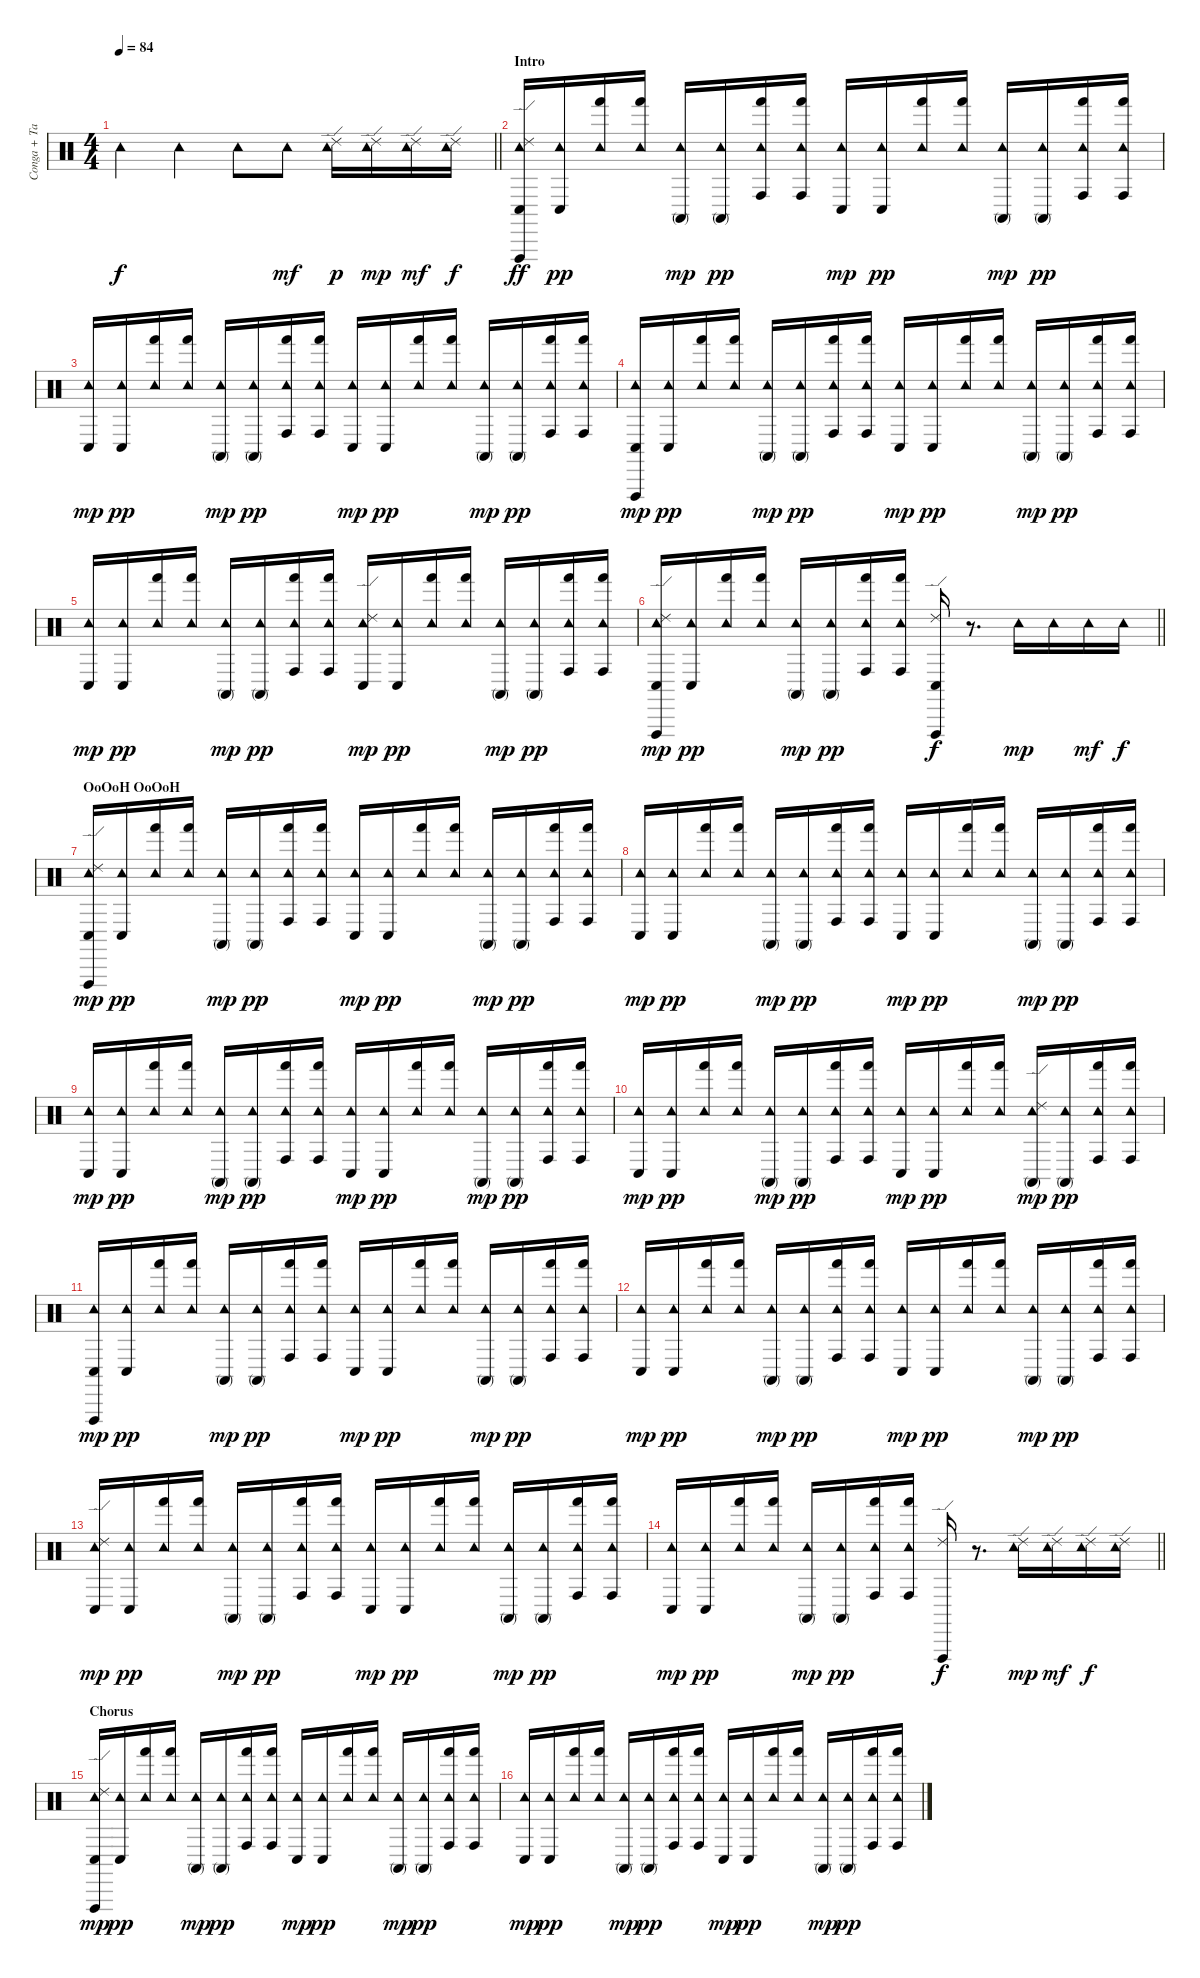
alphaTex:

\track ("Conga + Tambourine" "Conga + Ta") {instrument percussion}
\staff {score}
\articulation defaults
\ts (4 4)
\tempo 84
\clef neutral
\barLineRight lightlight
\ks c "Tambourine (hit)".4{dy f} "Tambourine (hit)".4 "Tambourine (hit)".8 "Tambourine (hit)".8{dy mf}
("Tambourine (hit)" "Ride (edge) 2").16{dy p} ("Tambourine (hit)" "Ride (edge) 2").16{dy mp} ("Tambourine (hit)" "Ride (edge) 2").16{dy mf} ("Tambourine (hit)" "Ride (edge) 2").16{dy f} |
\section ("" "Intro")
("Conga low (hit)" "Vibraslap (hit)" "Tambourine (hit)" "Ride (edge) 2").16{dy ff} ("Conga low (hit)" "Tambourine (hit)").16{dy pp} ("Hand (hit)" "Tambourine (hit)").16 ("Hand (hit)" "Tambourine (hit)").16 ("Conga high (mute)" "Tambourine (hit)").16{dy mp} ("Conga high (mute)" "Tambourine (hit)").16{dy pp} ("Conga high (hit)" "Hand (hit)" "Tambourine (hit)").16 ("Conga high (hit)" "Hand (hit)" "Tambourine (hit)").16 ("Conga low (hit)" "Tambourine (hit)").16{dy mp} ("Conga low (hit)" "Tambourine (hit)").16{dy pp} ("Hand (hit)" "Tambourine (hit)").16 ("Hand (hit)" "Tambourine (hit)").16 ("Conga high (mute)" "Tambourine (hit)").16{dy mp} ("Conga high (mute)" "Tambourine (hit)").16{dy pp} ("Conga high (hit)" "Hand (hit)" "Tambourine (hit)").16 ("Conga high (hit)" "Hand (hit)" "Tambourine (hit)").16 |
("Conga low (hit)" "Tambourine (hit)").16{dy mp} ("Conga low (hit)" "Tambourine (hit)").16{dy pp} ("Hand (hit)" "Tambourine (hit)").16 ("Hand (hit)" "Tambourine (hit)").16 ("Conga high (mute)" "Tambourine (hit)").16{dy mp} ("Conga high (mute)" "Tambourine (hit)").16{dy pp} ("Conga high (hit)" "Hand (hit)" "Tambourine (hit)").16 ("Conga high (hit)" "Hand (hit)" "Tambourine (hit)").16 ("Conga low (hit)" "Tambourine (hit)").16{dy mp} ("Conga low (hit)" "Tambourine (hit)").16{dy pp} ("Hand (hit)" "Tambourine (hit)").16 ("Hand (hit)" "Tambourine (hit)").16 ("Conga high (mute)" "Tambourine (hit)").16{dy mp} ("Conga high (mute)" "Tambourine (hit)").16{dy pp} ("Conga high (hit)" "Hand (hit)" "Tambourine (hit)").16 ("Conga high (hit)" "Hand (hit)" "Tambourine (hit)").16 |
("Conga low (hit)" "Vibraslap (hit)" "Tambourine (hit)").16{dy mp} ("Conga low (hit)" "Tambourine (hit)").16{dy pp} ("Hand (hit)" "Tambourine (hit)").16 ("Hand (hit)" "Tambourine (hit)").16 ("Conga high (mute)" "Tambourine (hit)").16{dy mp} ("Conga high (mute)" "Tambourine (hit)").16{dy pp} ("Conga high (hit)" "Hand (hit)" "Tambourine (hit)").16 ("Conga high (hit)" "Hand (hit)" "Tambourine (hit)").16 ("Conga low (hit)" "Tambourine (hit)").16{dy mp} ("Conga low (hit)" "Tambourine (hit)").16{dy pp} ("Hand (hit)" "Tambourine (hit)").16 ("Hand (hit)" "Tambourine (hit)").16 ("Conga high (mute)" "Tambourine (hit)").16{dy mp} ("Conga high (mute)" "Tambourine (hit)").16{dy pp} ("Conga high (hit)" "Hand (hit)" "Tambourine (hit)").16 ("Conga high (hit)" "Hand (hit)" "Tambourine (hit)").16 |
("Conga low (hit)" "Tambourine (hit)").16{dy mp} ("Conga low (hit)" "Tambourine (hit)").16{dy pp} ("Hand (hit)" "Tambourine (hit)").16 ("Hand (hit)" "Tambourine (hit)").16 ("Conga high (mute)" "Tambourine (hit)").16{dy mp} ("Conga high (mute)" "Tambourine (hit)").16{dy pp} ("Conga high (hit)" "Hand (hit)" "Tambourine (hit)").16 ("Conga high (hit)" "Hand (hit)" "Tambourine (hit)").16 ("Conga low (hit)" "Tambourine (hit)" "Ride (edge) 2").16{dy mp} ("Conga low (hit)" "Tambourine (hit)").16{dy pp} ("Hand (hit)" "Tambourine (hit)").16 ("Hand (hit)" "Tambourine (hit)").16 ("Conga high (mute)" "Tambourine (hit)").16{dy mp} ("Conga high (mute)" "Tambourine (hit)").16{dy pp} ("Conga high (hit)" "Hand (hit)" "Tambourine (hit)").16 ("Conga high (hit)" "Hand (hit)" "Tambourine (hit)").16 |
\barLineRight lightlight
("Conga low (hit)" "Vibraslap (hit)" "Tambourine (hit)" "Ride (edge) 2").16{dy mp} ("Conga low (hit)" "Tambourine (hit)").16{dy pp} ("Hand (hit)" "Tambourine (hit)").16 ("Hand (hit)" "Tambourine (hit)").16 ("Conga high (mute)" "Tambourine (hit)").16{dy mp} ("Conga high (mute)" "Tambourine (hit)").16{dy pp} ("Conga high (hit)" "Hand (hit)" "Tambourine (hit)").16 ("Conga high (hit)" "Hand (hit)" "Tambourine (hit)").16 ("Conga low (hit)" "Vibraslap (hit)" "Ride (edge) 2").16{dy f} r.8{d} "Tambourine (hit)".16{dy mp} "Tambourine (hit)".16 "Tambourine (hit)".16{dy mf} "Tambourine (hit)".16{dy f} |
\section ("" "OoOoH OoOoH")
("Conga low (hit)" "Vibraslap (hit)" "Tambourine (hit)" "Ride (edge) 2").16{dy mp} ("Conga low (hit)" "Tambourine (hit)").16{dy pp} ("Hand (hit)" "Tambourine (hit)").16 ("Hand (hit)" "Tambourine (hit)").16 ("Conga high (mute)" "Tambourine (hit)").16{dy mp} ("Conga high (mute)" "Tambourine (hit)").16{dy pp} ("Conga high (hit)" "Hand (hit)" "Tambourine (hit)").16 ("Conga high (hit)" "Hand (hit)" "Tambourine (hit)").16 ("Conga low (hit)" "Tambourine (hit)").16{dy mp} ("Conga low (hit)" "Tambourine (hit)").16{dy pp} ("Hand (hit)" "Tambourine (hit)").16 ("Hand (hit)" "Tambourine (hit)").16 ("Conga high (mute)" "Tambourine (hit)").16{dy mp} ("Conga high (mute)" "Tambourine (hit)").16{dy pp} ("Conga high (hit)" "Hand (hit)" "Tambourine (hit)").16 ("Conga high (hit)" "Hand (hit)" "Tambourine (hit)").16 |
("Conga low (hit)" "Tambourine (hit)").16{dy mp} ("Conga low (hit)" "Tambourine (hit)").16{dy pp} ("Hand (hit)" "Tambourine (hit)").16 ("Hand (hit)" "Tambourine (hit)").16 ("Conga high (mute)" "Tambourine (hit)").16{dy mp} ("Conga high (mute)" "Tambourine (hit)").16{dy pp} ("Conga high (hit)" "Hand (hit)" "Tambourine (hit)").16 ("Conga high (hit)" "Hand (hit)" "Tambourine (hit)").16 ("Conga low (hit)" "Tambourine (hit)").16{dy mp} ("Conga low (hit)" "Tambourine (hit)").16{dy pp} ("Hand (hit)" "Tambourine (hit)").16 ("Hand (hit)" "Tambourine (hit)").16 ("Conga high (mute)" "Tambourine (hit)").16{dy mp} ("Conga high (mute)" "Tambourine (hit)").16{dy pp} ("Conga high (hit)" "Hand (hit)" "Tambourine (hit)").16 ("Conga high (hit)" "Hand (hit)" "Tambourine (hit)").16 |
("Conga low (hit)" "Tambourine (hit)").16{dy mp} ("Conga low (hit)" "Tambourine (hit)").16{dy pp} ("Hand (hit)" "Tambourine (hit)").16 ("Hand (hit)" "Tambourine (hit)").16 ("Conga high (mute)" "Tambourine (hit)").16{dy mp} ("Conga high (mute)" "Tambourine (hit)").16{dy pp} ("Conga high (hit)" "Hand (hit)" "Tambourine (hit)").16 ("Conga high (hit)" "Hand (hit)" "Tambourine (hit)").16 ("Conga low (hit)" "Tambourine (hit)").16{dy mp} ("Conga low (hit)" "Tambourine (hit)").16{dy pp} ("Hand (hit)" "Tambourine (hit)").16 ("Hand (hit)" "Tambourine (hit)").16 ("Conga high (mute)" "Tambourine (hit)").16{dy mp} ("Conga high (mute)" "Tambourine (hit)").16{dy pp} ("Conga high (hit)" "Hand (hit)" "Tambourine (hit)").16 ("Conga high (hit)" "Hand (hit)" "Tambourine (hit)").16 |
("Conga low (hit)" "Tambourine (hit)").16{dy mp} ("Conga low (hit)" "Tambourine (hit)").16{dy pp} ("Hand (hit)" "Tambourine (hit)").16 ("Hand (hit)" "Tambourine (hit)").16 ("Conga high (mute)" "Tambourine (hit)").16{dy mp} ("Conga high (mute)" "Tambourine (hit)").16{dy pp} ("Conga high (hit)" "Hand (hit)" "Tambourine (hit)").16 ("Conga high (hit)" "Hand (hit)" "Tambourine (hit)").16 ("Conga low (hit)" "Tambourine (hit)").16{dy mp} ("Conga low (hit)" "Tambourine (hit)").16{dy pp} ("Hand (hit)" "Tambourine (hit)").16 ("Hand (hit)" "Tambourine (hit)").16 ("Conga high (mute)" "Tambourine (hit)" "Ride (edge) 2").16{dy mp} ("Conga high (mute)" "Tambourine (hit)").16{dy pp} ("Conga high (hit)" "Hand (hit)" "Tambourine (hit)").16 ("Conga high (hit)" "Hand (hit)" "Tambourine (hit)").16 |
("Conga low (hit)" "Vibraslap (hit)" "Tambourine (hit)").16{dy mp} ("Conga low (hit)" "Tambourine (hit)").16{dy pp} ("Hand (hit)" "Tambourine (hit)").16 ("Hand (hit)" "Tambourine (hit)").16 ("Conga high (mute)" "Tambourine (hit)").16{dy mp} ("Conga high (mute)" "Tambourine (hit)").16{dy pp} ("Conga high (hit)" "Hand (hit)" "Tambourine (hit)").16 ("Conga high (hit)" "Hand (hit)" "Tambourine (hit)").16 ("Conga low (hit)" "Tambourine (hit)").16{dy mp} ("Conga low (hit)" "Tambourine (hit)").16{dy pp} ("Hand (hit)" "Tambourine (hit)").16 ("Hand (hit)" "Tambourine (hit)").16 ("Conga high (mute)" "Tambourine (hit)").16{dy mp} ("Conga high (mute)" "Tambourine (hit)").16{dy pp} ("Conga high (hit)" "Hand (hit)" "Tambourine (hit)").16 ("Conga high (hit)" "Hand (hit)" "Tambourine (hit)").16 |
("Conga low (hit)" "Tambourine (hit)").16{dy mp} ("Conga low (hit)" "Tambourine (hit)").16{dy pp} ("Hand (hit)" "Tambourine (hit)").16 ("Hand (hit)" "Tambourine (hit)").16 ("Conga high (mute)" "Tambourine (hit)").16{dy mp} ("Conga high (mute)" "Tambourine (hit)").16{dy pp} ("Conga high (hit)" "Hand (hit)" "Tambourine (hit)").16 ("Conga high (hit)" "Hand (hit)" "Tambourine (hit)").16 ("Conga low (hit)" "Tambourine (hit)").16{dy mp} ("Conga low (hit)" "Tambourine (hit)").16{dy pp} ("Hand (hit)" "Tambourine (hit)").16 ("Hand (hit)" "Tambourine (hit)").16 ("Conga high (mute)" "Tambourine (hit)").16{dy mp} ("Conga high (mute)" "Tambourine (hit)").16{dy pp} ("Conga high (hit)" "Hand (hit)" "Tambourine (hit)").16 ("Conga high (hit)" "Hand (hit)" "Tambourine (hit)").16 |
("Conga low (hit)" "Tambourine (hit)" "Ride (edge) 2").16{dy mp} ("Conga low (hit)" "Tambourine (hit)").16{dy pp} ("Hand (hit)" "Tambourine (hit)").16 ("Hand (hit)" "Tambourine (hit)").16 ("Conga high (mute)" "Tambourine (hit)").16{dy mp} ("Conga high (mute)" "Tambourine (hit)").16{dy pp} ("Conga high (hit)" "Hand (hit)" "Tambourine (hit)").16 ("Conga high (hit)" "Hand (hit)" "Tambourine (hit)").16 ("Conga low (hit)" "Tambourine (hit)").16{dy mp} ("Conga low (hit)" "Tambourine (hit)").16{dy pp} ("Hand (hit)" "Tambourine (hit)").16 ("Hand (hit)" "Tambourine (hit)").16 ("Conga high (mute)" "Tambourine (hit)").16{dy mp} ("Conga high (mute)" "Tambourine (hit)").16{dy pp} ("Conga high (hit)" "Hand (hit)" "Tambourine (hit)").16 ("Conga high (hit)" "Hand (hit)" "Tambourine (hit)").16 |
\barLineRight lightlight
("Conga low (hit)" "Tambourine (hit)").16{dy mp} ("Conga low (hit)" "Tambourine (hit)").16{dy pp} ("Hand (hit)" "Tambourine (hit)").16 ("Hand (hit)" "Tambourine (hit)").16 ("Conga high (mute)" "Tambourine (hit)").16{dy mp} ("Conga high (mute)" "Tambourine (hit)").16{dy pp} ("Conga high (hit)" "Hand (hit)" "Tambourine (hit)").16 ("Conga high (hit)" "Hand (hit)" "Tambourine (hit)").16 ("Vibraslap (hit)" "Ride (edge) 2").16{dy f} r.8{d} ("Tambourine (hit)" "Ride (edge) 2").16{dy mp} ("Tambourine (hit)" "Ride (edge) 2").16{dy mf} ("Tambourine (hit)" "Ride (edge) 2").16{dy f} ("Tambourine (hit)" "Ride (edge) 2").16 |
\section ("" "Chorus")
("Conga low (hit)" "Vibraslap (hit)" "Tambourine (hit)" "Ride (edge) 2").16{dy mp} ("Conga low (hit)" "Tambourine (hit)").16{dy pp} ("Hand (hit)" "Tambourine (hit)").16 ("Hand (hit)" "Tambourine (hit)").16 ("Conga high (mute)" "Tambourine (hit)").16{dy mp} ("Conga high (mute)" "Tambourine (hit)").16{dy pp} ("Conga high (hit)" "Hand (hit)" "Tambourine (hit)").16 ("Conga high (hit)" "Hand (hit)" "Tambourine (hit)").16 ("Conga low (hit)" "Tambourine (hit)").16{dy mp} ("Conga low (hit)" "Tambourine (hit)").16{dy pp} ("Hand (hit)" "Tambourine (hit)").16 ("Hand (hit)" "Tambourine (hit)").16 ("Conga high (mute)" "Tambourine (hit)").16{dy mp} ("Conga high (mute)" "Tambourine (hit)").16{dy pp} ("Conga high (hit)" "Hand (hit)" "Tambourine (hit)").16 ("Conga high (hit)" "Hand (hit)" "Tambourine (hit)").16 |
("Conga low (hit)" "Tambourine (hit)").16{dy mp} ("Conga low (hit)" "Tambourine (hit)").16{dy pp} ("Hand (hit)" "Tambourine (hit)").16 ("Hand (hit)" "Tambourine (hit)").16 ("Conga high (mute)" "Tambourine (hit)").16{dy mp} ("Conga high (mute)" "Tambourine (hit)").16{dy pp} ("Conga high (hit)" "Hand (hit)" "Tambourine (hit)").16 ("Conga high (hit)" "Hand (hit)" "Tambourine (hit)").16 ("Conga low (hit)" "Tambourine (hit)").16{dy mp} ("Conga low (hit)" "Tambourine (hit)").16{dy pp} ("Hand (hit)" "Tambourine (hit)").16 ("Hand (hit)" "Tambourine (hit)").16 ("Conga high (mute)" "Tambourine (hit)").16{dy mp} ("Conga high (mute)" "Tambourine (hit)").16{dy pp} ("Conga high (hit)" "Hand (hit)" "Tambourine (hit)").16 ("Conga high (hit)" "Hand (hit)" "Tambourine (hit)").16
